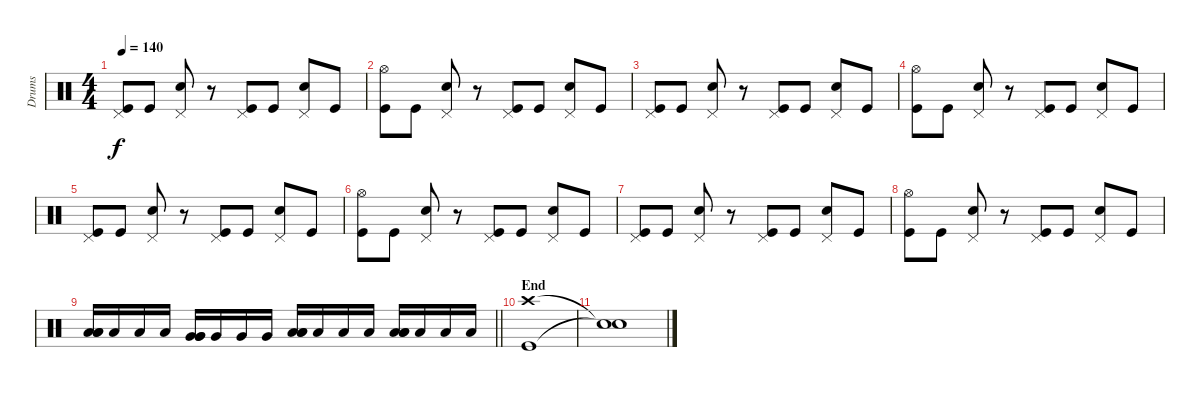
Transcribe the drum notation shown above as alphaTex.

\track ("Drums" "Drums") {instrument percussion}
\staff {score}
\articulation defaults
\ts (4 4)
\tempo 140
\clef neutral
\ks c
("Pedal Hi-Hat (hit)" "Kick (hit)").8{dy f} "Kick (hit)".8 ("Pedal Hi-Hat (hit)" "Electric Snare (hit)").8 r.8 ("Pedal Hi-Hat (hit)" "Kick (hit)").8 "Kick (hit)".8 ("Pedal Hi-Hat (hit)" "Electric Snare (hit)").8 "Kick (hit)".8 |
("Hi-Hat (open)" "Kick (hit)").8 "Kick (hit)".8 ("Pedal Hi-Hat (hit)" "Electric Snare (hit)").8 r.8 ("Pedal Hi-Hat (hit)" "Kick (hit)").8 "Kick (hit)".8 ("Pedal Hi-Hat (hit)" "Electric Snare (hit)").8 "Kick (hit)".8 |
("Pedal Hi-Hat (hit)" "Kick (hit)").8 "Kick (hit)".8 ("Pedal Hi-Hat (hit)" "Electric Snare (hit)").8 r.8 ("Pedal Hi-Hat (hit)" "Kick (hit)").8 "Kick (hit)".8 ("Pedal Hi-Hat (hit)" "Electric Snare (hit)").8 "Kick (hit)".8 |
("Hi-Hat (open)" "Kick (hit)").8 "Kick (hit)".8 ("Pedal Hi-Hat (hit)" "Electric Snare (hit)").8 r.8 ("Pedal Hi-Hat (hit)" "Kick (hit)").8 "Kick (hit)".8 ("Pedal Hi-Hat (hit)" "Electric Snare (hit)").8 "Kick (hit)".8 |
("Pedal Hi-Hat (hit)" "Kick (hit)").8 "Kick (hit)".8 ("Pedal Hi-Hat (hit)" "Electric Snare (hit)").8 r.8 ("Pedal Hi-Hat (hit)" "Kick (hit)").8 "Kick (hit)".8 ("Pedal Hi-Hat (hit)" "Electric Snare (hit)").8 "Kick (hit)".8 |
("Hi-Hat (open)" "Kick (hit)").8 "Kick (hit)".8 ("Pedal Hi-Hat (hit)" "Electric Snare (hit)").8 r.8 ("Pedal Hi-Hat (hit)" "Kick (hit)").8 "Kick (hit)".8 ("Pedal Hi-Hat (hit)" "Electric Snare (hit)").8 "Kick (hit)".8 |
("Pedal Hi-Hat (hit)" "Kick (hit)").8 "Kick (hit)".8 ("Pedal Hi-Hat (hit)" "Electric Snare (hit)").8 r.8 ("Pedal Hi-Hat (hit)" "Kick (hit)").8 "Kick (hit)".8 ("Pedal Hi-Hat (hit)" "Electric Snare (hit)").8 "Kick (hit)".8 |
("Hi-Hat (open)" "Kick (hit)").8 "Kick (hit)".8 ("Pedal Hi-Hat (hit)" "Electric Snare (hit)").8 r.8 ("Pedal Hi-Hat (hit)" "Kick (hit)").8 "Kick (hit)".8 ("Pedal Hi-Hat (hit)" "Electric Snare (hit)").8 "Kick (hit)".8 |
\barLineRight lightlight
("Low Tom (hit)" "Low Tom (hit)" "Low Tom (hit)").16 "Low Tom (hit)".16 "Low Tom (hit)".16 "Low Tom (hit)".16 ("Very Low Tom (hit)" "Very Low Tom (hit)" "Very Low Tom (hit)").16 "Very Low Tom (hit)".16 "Very Low Tom (hit)".16 "Very Low Tom (hit)".16 ("Low Floor Tom (hit)" "Low Floor Tom (hit)" "Low Floor Tom (hit)").16 "Low Floor Tom (hit)".16 "Low Floor Tom (hit)".16 "Low Floor Tom (hit)".16 ("Low Tom (hit)" "Low Tom (hit)" "Low Tom (hit)").16 "Low Tom (hit)".16 "Low Tom (hit)".16 "Low Tom (hit)".16 |
\section ("" "End")
("Crash high (hit)" "Kick (hit)").1 |
("Snare (hit)"{t} "Snare (hit)"{t}).1
